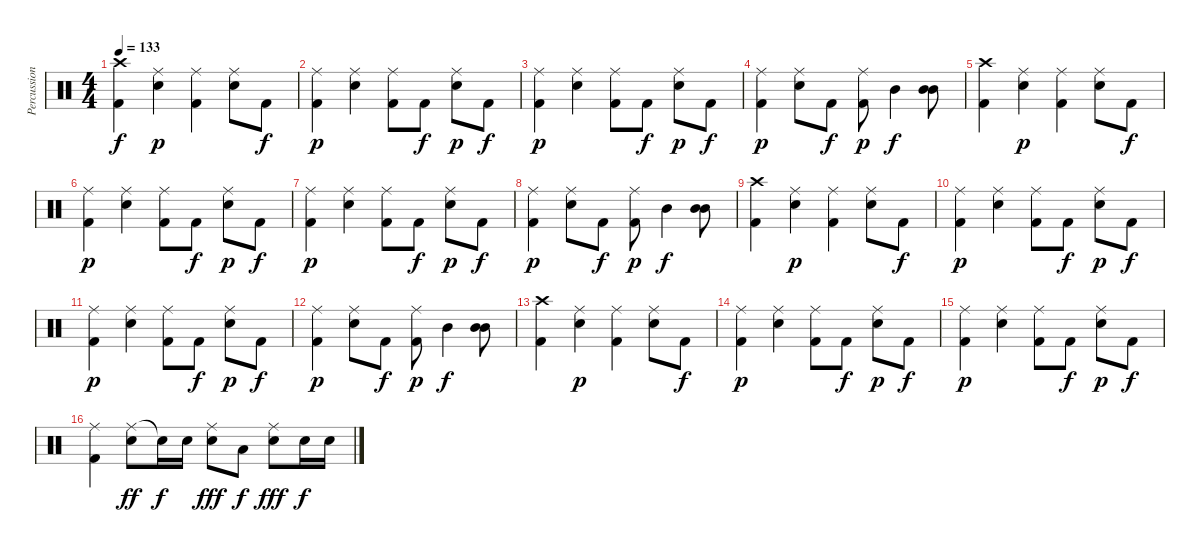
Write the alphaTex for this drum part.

\track ("Percussion" "Percussion") {instrument percussion}
\staff {score}
\articulation defaults
\ts (4 4)
\tempo 133
\clef neutral
\ks c
("Crash high (hit)" "Kick (hit) 2").4{dy f} ("Ride (middle)" "Electric Snare (hit)").4{dy p} ("Ride (middle)" "Kick (hit) 2").4 ("Ride (middle)" "Electric Snare (hit)").8 "Kick (hit) 2".8{dy f} |
("Ride (middle)" "Kick (hit) 2").4{dy p} ("Ride (middle)" "Electric Snare (hit)").4 ("Ride (middle)" "Kick (hit) 2").8 "Kick (hit) 2".8{dy f} ("Ride (middle)" "Electric Snare (hit)").8{dy p} "Kick (hit) 2".8{dy f} |
("Ride (middle)" "Kick (hit) 2").4{dy p} ("Ride (middle)" "Electric Snare (hit)").4 ("Ride (middle)" "Kick (hit) 2").8 "Kick (hit) 2".8{dy f} ("Ride (middle)" "Electric Snare (hit)").8{dy p} "Kick (hit) 2".8{dy f} |
("Ride (middle)" "Kick (hit) 2").4{dy p} ("Ride (middle)" "Electric Snare (hit)").8 "Kick (hit) 2".8{dy f} ("Ride (middle)" "Kick (hit) 2").8{dy p} "Mid Tom (hit)".4{dy f} ("Mid Tom (hit)" "Mid Tom (hit)").8{bd 480} |
("Crash high (hit)" "Kick (hit) 2").4 ("Ride (middle)" "Electric Snare (hit)").4{dy p} ("Ride (middle)" "Kick (hit) 2").4 ("Ride (middle)" "Electric Snare (hit)").8 "Kick (hit) 2".8{dy f} |
("Ride (middle)" "Kick (hit) 2").4{dy p} ("Ride (middle)" "Electric Snare (hit)").4 ("Ride (middle)" "Kick (hit) 2").8 "Kick (hit) 2".8{dy f} ("Ride (middle)" "Electric Snare (hit)").8{dy p} "Kick (hit) 2".8{dy f} |
("Ride (middle)" "Kick (hit) 2").4{dy p} ("Ride (middle)" "Electric Snare (hit)").4 ("Ride (middle)" "Kick (hit) 2").8 "Kick (hit) 2".8{dy f} ("Ride (middle)" "Electric Snare (hit)").8{dy p} "Kick (hit) 2".8{dy f} |
("Ride (middle)" "Kick (hit) 2").4{dy p} ("Ride (middle)" "Electric Snare (hit)").8 "Kick (hit) 2".8{dy f} ("Ride (middle)" "Kick (hit) 2").8{dy p} "Mid Tom (hit)".4{dy f} ("Mid Tom (hit)" "Mid Tom (hit)").8{bd 480} |
("Crash high (hit)" "Kick (hit) 2").4 ("Ride (middle)" "Electric Snare (hit)").4{dy p} ("Ride (middle)" "Kick (hit) 2").4 ("Ride (middle)" "Electric Snare (hit)").8 "Kick (hit) 2".8{dy f} |
("Ride (middle)" "Kick (hit) 2").4{dy p} ("Ride (middle)" "Electric Snare (hit)").4 ("Ride (middle)" "Kick (hit) 2").8 "Kick (hit) 2".8{dy f} ("Ride (middle)" "Electric Snare (hit)").8{dy p} "Kick (hit) 2".8{dy f} |
("Ride (middle)" "Kick (hit) 2").4{dy p} ("Ride (middle)" "Electric Snare (hit)").4 ("Ride (middle)" "Kick (hit) 2").8 "Kick (hit) 2".8{dy f} ("Ride (middle)" "Electric Snare (hit)").8{dy p} "Kick (hit) 2".8{dy f} |
("Ride (middle)" "Kick (hit) 2").4{dy p} ("Ride (middle)" "Electric Snare (hit)").8 "Kick (hit) 2".8{dy f} ("Ride (middle)" "Kick (hit) 2").8{dy p} "Mid Tom (hit)".4{dy f} ("Mid Tom (hit)" "Mid Tom (hit)").8{bd 480} |
("Crash high (hit)" "Kick (hit) 2").4 ("Ride (middle)" "Electric Snare (hit)").4{dy p} ("Ride (middle)" "Kick (hit) 2").4 ("Ride (middle)" "Electric Snare (hit)").8 "Kick (hit) 2".8{dy f} |
("Ride (middle)" "Kick (hit) 2").4{dy p} ("Ride (middle)" "Electric Snare (hit)").4 ("Ride (middle)" "Kick (hit) 2").8 "Kick (hit) 2".8{dy f} ("Ride (middle)" "Electric Snare (hit)").8{dy p} "Kick (hit) 2".8{dy f} |
("Ride (middle)" "Kick (hit) 2").4{dy p} ("Ride (middle)" "Electric Snare (hit)").4 ("Ride (middle)" "Kick (hit) 2").8 "Kick (hit) 2".8{dy f} ("Ride (middle)" "Electric Snare (hit)").8{dy p} "Kick (hit) 2".8{dy f} |
("Ride (middle)" "Kick (hit) 2").4 ("Ride (middle)" "Electric Snare (hit)").8{dy ff} "Snare (hit)"{t}.16{dy f} "Electric Snare (hit)".16 ("Ride (middle)" "Electric Snare (hit)").8{dy fff} "Low Tom (hit)".8{dy f} ("Ride (middle)" "Electric Snare (hit)").8{dy fff} "Electric Snare (hit)".16{dy f} "Electric Snare (hit)".16
